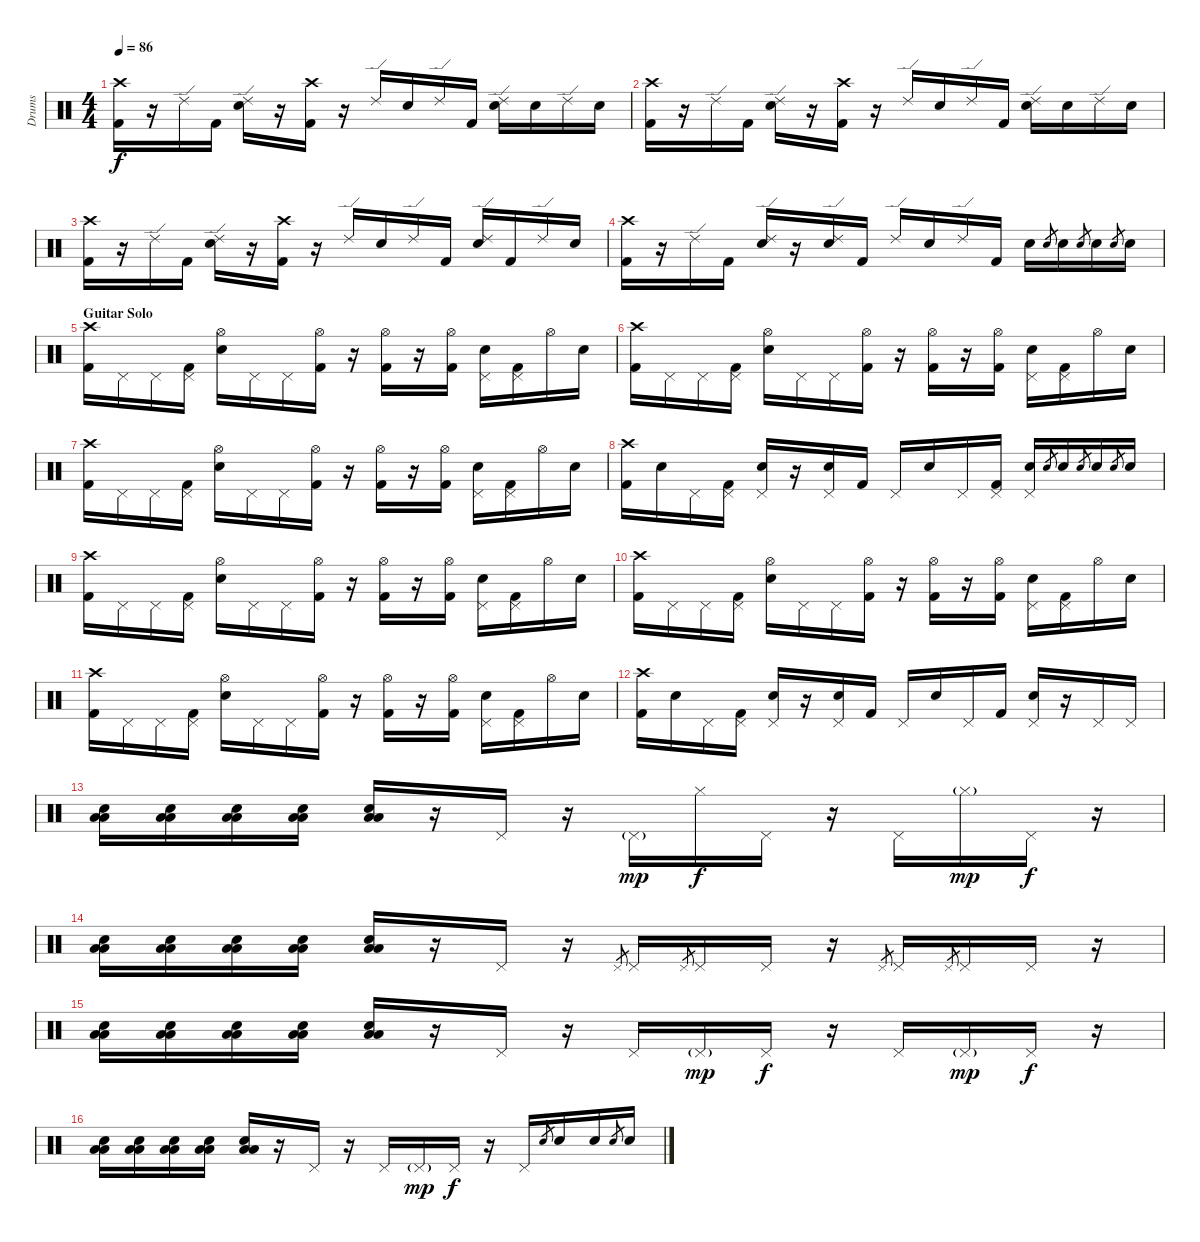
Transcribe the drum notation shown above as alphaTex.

\track ("Drums" "Drums") {instrument percussion}
\staff {score}
\articulation defaults
\ts (4 4)
\tempo 86
\clef neutral
\ks c
("Crash high (hit)" "Kick (hit) 2").16{dy f} r.16 "Ride (edge) 2".16 "Kick (hit) 2".16 ("Ride (edge) 2" "Snare (hit) 2").16 r.16 ("Crash high (hit)" "Kick (hit) 2").16 r.16 "Ride (edge) 2".16 "Snare (hit) 2".16 "Ride (edge) 2".16 "Kick (hit) 2".16 ("Ride (edge) 2" "Snare (hit) 2").16 "Snare (hit) 2".16 "Ride (edge) 2".16 "Snare (hit) 2".16 |
("Crash high (hit)" "Kick (hit) 2").16 r.16 "Ride (edge) 2".16 "Kick (hit) 2".16 ("Ride (edge) 2" "Snare (hit) 2").16 r.16 ("Crash high (hit)" "Kick (hit) 2").16 r.16 "Ride (edge) 2".16 "Snare (hit) 2".16 "Ride (edge) 2".16 "Kick (hit) 2".16 ("Ride (edge) 2" "Snare (hit) 2").16 "Snare (hit) 2".16 "Ride (edge) 2".16 "Snare (hit) 2".16 |
("Crash high (hit)" "Kick (hit) 2").16 r.16 "Ride (edge) 2".16 "Kick (hit) 2".16 ("Ride (edge) 2" "Snare (hit) 2").16 r.16 ("Crash high (hit)" "Kick (hit) 2").16 r.16 "Ride (edge) 2".16 "Snare (hit) 2".16 "Ride (edge) 2".16 "Kick (hit) 2".16 ("Ride (edge) 2" "Snare (hit) 2").16 "Kick (hit) 2".16 "Ride (edge) 2".16 "Snare (hit) 2".16 |
("Crash high (hit)" "Kick (hit) 2").16 r.16 "Ride (edge) 2".16 "Kick (hit) 2".16 ("Ride (edge) 2" "Snare (hit) 2").16 r.16 ("Ride (edge) 2" "Snare (hit) 2").16 "Kick (hit) 2".16 "Ride (edge) 2".16 "Snare (hit) 2".16 "Ride (edge) 2".16 "Kick (hit) 2".16 "Snare (hit) 2".16 "Snare (hit) 2".8{gr} "Snare (hit) 2".16 "Snare (hit) 2".8{gr} "Snare (hit) 2".16 "Snare (hit) 2".8{gr} "Snare (hit) 2".16 |
\section ("" "Guitar Solo")
("Crash high (hit)" "Kick (hit) 2").16 "Pedal Hi-Hat (hit)".16 "Pedal Hi-Hat (hit)".16 ("Pedal Hi-Hat (hit)" "Kick (hit) 2").16 ("Hi-Hat (open)" "Snare (hit) 2").16 "Pedal Hi-Hat (hit)".16 "Pedal Hi-Hat (hit)".16 ("Hi-Hat (open)" "Kick (hit) 2").16 r.16 ("Hi-Hat (open)" "Kick (hit) 2").16 r.16 ("Hi-Hat (open)" "Kick (hit) 2").16 ("Pedal Hi-Hat (hit)" "Snare (hit) 2").16 ("Pedal Hi-Hat (hit)" "Kick (hit) 2").16 "Hi-Hat (open)".16 "Snare (hit) 2".16 |
("Crash high (hit)" "Kick (hit) 2").16 "Pedal Hi-Hat (hit)".16 "Pedal Hi-Hat (hit)".16 ("Pedal Hi-Hat (hit)" "Kick (hit) 2").16 ("Hi-Hat (open)" "Snare (hit) 2").16 "Pedal Hi-Hat (hit)".16 "Pedal Hi-Hat (hit)".16 ("Hi-Hat (open)" "Kick (hit) 2").16 r.16 ("Hi-Hat (open)" "Kick (hit) 2").16 r.16 ("Hi-Hat (open)" "Kick (hit) 2").16 ("Pedal Hi-Hat (hit)" "Snare (hit) 2").16 ("Pedal Hi-Hat (hit)" "Kick (hit) 2").16 "Hi-Hat (open)".16 "Snare (hit) 2".16 |
("Crash high (hit)" "Kick (hit) 2").16 "Pedal Hi-Hat (hit)".16 "Pedal Hi-Hat (hit)".16 ("Pedal Hi-Hat (hit)" "Kick (hit) 2").16 ("Hi-Hat (open)" "Snare (hit) 2").16 "Pedal Hi-Hat (hit)".16 "Pedal Hi-Hat (hit)".16 ("Hi-Hat (open)" "Kick (hit) 2").16 r.16 ("Hi-Hat (open)" "Kick (hit) 2").16 r.16 ("Hi-Hat (open)" "Kick (hit) 2").16 ("Pedal Hi-Hat (hit)" "Snare (hit) 2").16 ("Pedal Hi-Hat (hit)" "Kick (hit) 2").16 "Hi-Hat (open)".16 "Snare (hit) 2".16 |
("Crash high (hit)" "Kick (hit) 2").16 "Snare (hit) 2".16 "Pedal Hi-Hat (hit)".16 ("Pedal Hi-Hat (hit)" "Kick (hit) 2").16 ("Pedal Hi-Hat (hit)" "Snare (hit) 2").16 r.16 ("Pedal Hi-Hat (hit)" "Snare (hit) 2").16 "Kick (hit) 2".16 "Pedal Hi-Hat (hit)".16 "Snare (hit) 2".16 "Pedal Hi-Hat (hit)".16 ("Pedal Hi-Hat (hit)" "Kick (hit) 2").16 ("Pedal Hi-Hat (hit)" "Snare (hit) 2").16 "Snare (hit) 2".8{gr} "Snare (hit) 2".16 "Snare (hit) 2".8{gr} "Snare (hit) 2".16 "Snare (hit) 2".8{gr} "Snare (hit) 2".16 |
("Crash high (hit)" "Kick (hit) 2").16 "Pedal Hi-Hat (hit)".16 "Pedal Hi-Hat (hit)".16 ("Pedal Hi-Hat (hit)" "Kick (hit) 2").16 ("Hi-Hat (open)" "Snare (hit) 2").16 "Pedal Hi-Hat (hit)".16 "Pedal Hi-Hat (hit)".16 ("Hi-Hat (open)" "Kick (hit) 2").16 r.16 ("Hi-Hat (open)" "Kick (hit) 2").16 r.16 ("Hi-Hat (open)" "Kick (hit) 2").16 ("Pedal Hi-Hat (hit)" "Snare (hit) 2").16 ("Pedal Hi-Hat (hit)" "Kick (hit) 2").16 "Hi-Hat (open)".16 "Snare (hit) 2".16 |
("Crash high (hit)" "Kick (hit) 2").16 "Pedal Hi-Hat (hit)".16 "Pedal Hi-Hat (hit)".16 ("Pedal Hi-Hat (hit)" "Kick (hit) 2").16 ("Hi-Hat (open)" "Snare (hit) 2").16 "Pedal Hi-Hat (hit)".16 "Pedal Hi-Hat (hit)".16 ("Hi-Hat (open)" "Kick (hit) 2").16 r.16 ("Hi-Hat (open)" "Kick (hit) 2").16 r.16 ("Hi-Hat (open)" "Kick (hit) 2").16 ("Pedal Hi-Hat (hit)" "Snare (hit) 2").16 ("Pedal Hi-Hat (hit)" "Kick (hit) 2").16 "Hi-Hat (open)".16 "Snare (hit) 2".16 |
("Crash high (hit)" "Kick (hit) 2").16 "Pedal Hi-Hat (hit)".16 "Pedal Hi-Hat (hit)".16 ("Pedal Hi-Hat (hit)" "Kick (hit) 2").16 ("Hi-Hat (open)" "Snare (hit) 2").16 "Pedal Hi-Hat (hit)".16 "Pedal Hi-Hat (hit)".16 ("Hi-Hat (open)" "Kick (hit) 2").16 r.16 ("Hi-Hat (open)" "Kick (hit) 2").16 r.16 ("Hi-Hat (open)" "Kick (hit) 2").16 ("Pedal Hi-Hat (hit)" "Snare (hit) 2").16 ("Pedal Hi-Hat (hit)" "Kick (hit) 2").16 "Hi-Hat (open)".16 "Snare (hit) 2".16 |
("Crash high (hit)" "Kick (hit) 2").16 "Snare (hit) 2".16 "Pedal Hi-Hat (hit)".16 ("Pedal Hi-Hat (hit)" "Kick (hit) 2").16 ("Pedal Hi-Hat (hit)" "Snare (hit) 2").16 r.16 ("Pedal Hi-Hat (hit)" "Snare (hit) 2").16 "Kick (hit) 2".16 "Pedal Hi-Hat (hit)".16 "Snare (hit) 2".16 "Pedal Hi-Hat (hit)".16 "Kick (hit) 2".16 ("Pedal Hi-Hat (hit)" "Snare (hit) 2").16 r.16 "Pedal Hi-Hat (hit)".16 "Pedal Hi-Hat (hit)".16 |
("Low Tom (hit)" "Snare (hit) 2" "Low Floor Tom (hit)").16 ("Low Tom (hit)" "Snare (hit) 2" "Low Floor Tom (hit)").16 ("Low Tom (hit)" "Snare (hit) 2" "Low Floor Tom (hit)").16 ("Low Tom (hit)" "Snare (hit) 2" "Low Floor Tom (hit)").16 ("Low Tom (hit)" "Snare (hit) 2" "Low Floor Tom (hit)").16 r.16 "Pedal Hi-Hat (hit)".16 r.16 "Pedal Hi-Hat (hit)"{g}.16{dy mp} "Hi-Hat (closed)".16{dy f} "Pedal Hi-Hat (hit)".16 r.16 "Pedal Hi-Hat (hit)".16 "Hi-Hat (closed)"{g}.16{dy mp} "Pedal Hi-Hat (hit)".16{dy f} r.16 |
("Low Tom (hit)" "Snare (hit) 2" "Low Floor Tom (hit)").16 ("Low Tom (hit)" "Snare (hit) 2" "Low Floor Tom (hit)").16 ("Low Tom (hit)" "Snare (hit) 2" "Low Floor Tom (hit)").16 ("Low Tom (hit)" "Snare (hit) 2" "Low Floor Tom (hit)").16 ("Low Tom (hit)" "Snare (hit) 2" "Low Floor Tom (hit)").16 r.16 "Pedal Hi-Hat (hit)".16 r.16 "Pedal Hi-Hat (hit)".8{gr} "Pedal Hi-Hat (hit)".16 "Pedal Hi-Hat (hit)".8{gr} "Pedal Hi-Hat (hit)".16 "Pedal Hi-Hat (hit)".16 r.16 "Pedal Hi-Hat (hit)".8{gr} "Pedal Hi-Hat (hit)".16 "Pedal Hi-Hat (hit)".8{gr} "Pedal Hi-Hat (hit)".16 "Pedal Hi-Hat (hit)".16 r.16 |
("Low Tom (hit)" "Snare (hit) 2" "Low Floor Tom (hit)").16 ("Low Tom (hit)" "Snare (hit) 2" "Low Floor Tom (hit)").16 ("Low Tom (hit)" "Snare (hit) 2" "Low Floor Tom (hit)").16 ("Low Tom (hit)" "Snare (hit) 2" "Low Floor Tom (hit)").16 ("Low Tom (hit)" "Snare (hit) 2" "Low Floor Tom (hit)").16 r.16 "Pedal Hi-Hat (hit)".16 r.16 "Pedal Hi-Hat (hit)".16 "Pedal Hi-Hat (hit)"{g}.16{dy mp} "Pedal Hi-Hat (hit)".16{dy f} r.16 "Pedal Hi-Hat (hit)".16 "Pedal Hi-Hat (hit)"{g}.16{dy mp} "Pedal Hi-Hat (hit)".16{dy f} r.16 |
("Low Tom (hit)" "Snare (hit) 2" "Low Floor Tom (hit)").16 ("Low Tom (hit)" "Snare (hit) 2" "Low Floor Tom (hit)").16 ("Low Tom (hit)" "Snare (hit) 2" "Low Floor Tom (hit)").16 ("Low Tom (hit)" "Snare (hit) 2" "Low Floor Tom (hit)").16 ("Low Tom (hit)" "Snare (hit) 2" "Low Floor Tom (hit)").16 r.16 "Pedal Hi-Hat (hit)".16 r.16 "Pedal Hi-Hat (hit)".16 "Pedal Hi-Hat (hit)"{g}.16{dy mp} "Pedal Hi-Hat (hit)".16{dy f} r.16 "Pedal Hi-Hat (hit)".16 "Snare (hit) 2".8{gr} "Snare (hit) 2".16 "Snare (hit) 2".16 "Snare (hit) 2".8{gr} "Snare (hit) 2".16
